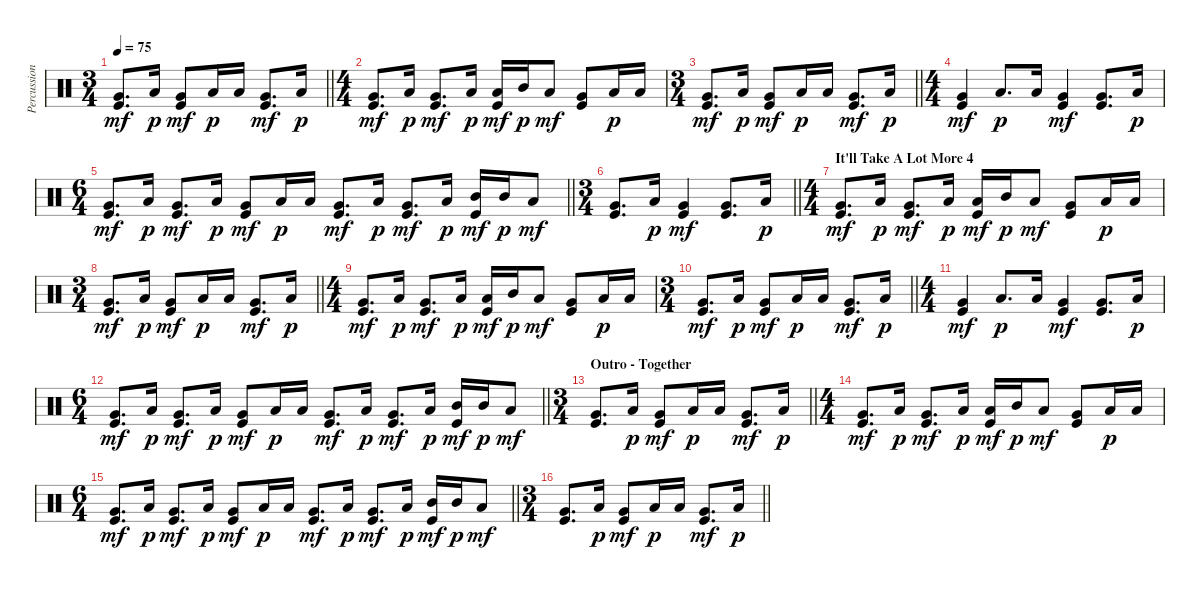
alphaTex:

\track ("Percussion" "Percussion") {instrument percussion}
\staff {score}
\articulation defaults
\ts (3 4)
\tempo 75
\clef neutral
\barLineRight lightlight
\ks c
("Very Low Tom (hit)" "Kick (hit)").8{d dy mf} "Low Tom (hit)".16{dy p} ("Very Low Tom (hit)" "Kick (hit)").8{dy mf} "Low Tom (hit)".16{dy p} "Low Tom (hit)".16 ("Very Low Tom (hit)" "Kick (hit)").8{d dy mf} "Low Tom (hit)".16{dy p} |
\ts (4 4)
("Very Low Tom (hit)" "Kick (hit)").8{d dy mf} "Low Tom (hit)".16{dy p} ("Very Low Tom (hit)" "Kick (hit)").8{d dy mf} "Low Tom (hit)".16{dy p} ("Low Tom (hit)" "Kick (hit)").16{dy mf} "Mid Tom (hit)".16{dy p} "Low Tom (hit)".8{dy mf} ("Very Low Tom (hit)" "Kick (hit)").8 "Low Tom (hit)".16{dy p} "Low Tom (hit)".16 |
\ts (3 4)
\barLineRight lightlight
("Very Low Tom (hit)" "Kick (hit)").8{d dy mf} "Low Tom (hit)".16{dy p} ("Very Low Tom (hit)" "Kick (hit)").8{dy mf} "Low Tom (hit)".16{dy p} "Low Tom (hit)".16 ("Very Low Tom (hit)" "Kick (hit)").8{d dy mf} "Low Tom (hit)".16{dy p} |
\ts (4 4)
("Very Low Tom (hit)" "Kick (hit)").4{dy mf} "Low Tom (hit)".8{d dy p} "Low Tom (hit)".16 ("Very Low Tom (hit)" "Kick (hit)").4{dy mf} ("Very Low Tom (hit)" "Kick (hit)").8{d} "Low Tom (hit)".16{dy p} |
\ts (6 4)
\barLineRight lightlight
("Very Low Tom (hit)" "Kick (hit)").8{d dy mf} "Low Tom (hit)".16{dy p} ("Very Low Tom (hit)" "Kick (hit)").8{d dy mf} "Low Tom (hit)".16{dy p} ("Very Low Tom (hit)" "Kick (hit)").8{dy mf} "Low Tom (hit)".16{dy p} "Low Tom (hit)".16 ("Very Low Tom (hit)" "Kick (hit)").8{d dy mf} "Low Tom (hit)".16{dy p} ("Very Low Tom (hit)" "Kick (hit)").8{d dy mf} "Low Tom (hit)".16{dy p} ("Mid Tom (hit)" "Kick (hit)").16{dy mf} "Mid Tom (hit)".16{dy p} "Low Tom (hit)".8{dy mf} |
\ts (3 4)
\barLineRight lightlight
("Very Low Tom (hit)" "Kick (hit)").8{d} "Low Tom (hit)".16{dy p} ("Very Low Tom (hit)" "Kick (hit)").4{dy mf} ("Very Low Tom (hit)" "Kick (hit)").8{d} "Low Tom (hit)".16{dy p} |
\ts (4 4)
\section ("" "It'll Take A Lot More 4")
("Very Low Tom (hit)" "Kick (hit)").8{d dy mf} "Low Tom (hit)".16{dy p} ("Very Low Tom (hit)" "Kick (hit)").8{d dy mf} "Low Tom (hit)".16{dy p} ("Low Tom (hit)" "Kick (hit)").16{dy mf} "Mid Tom (hit)".16{dy p} "Low Tom (hit)".8{dy mf} ("Very Low Tom (hit)" "Kick (hit)").8 "Low Tom (hit)".16{dy p} "Low Tom (hit)".16 |
\ts (3 4)
\barLineRight lightlight
("Very Low Tom (hit)" "Kick (hit)").8{d dy mf} "Low Tom (hit)".16{dy p} ("Very Low Tom (hit)" "Kick (hit)").8{dy mf} "Low Tom (hit)".16{dy p} "Low Tom (hit)".16 ("Very Low Tom (hit)" "Kick (hit)").8{d dy mf} "Low Tom (hit)".16{dy p} |
\ts (4 4)
("Very Low Tom (hit)" "Kick (hit)").8{d dy mf} "Low Tom (hit)".16{dy p} ("Very Low Tom (hit)" "Kick (hit)").8{d dy mf} "Low Tom (hit)".16{dy p} ("Low Tom (hit)" "Kick (hit)").16{dy mf} "Mid Tom (hit)".16{dy p} "Low Tom (hit)".8{dy mf} ("Very Low Tom (hit)" "Kick (hit)").8 "Low Tom (hit)".16{dy p} "Low Tom (hit)".16 |
\ts (3 4)
\barLineRight lightlight
("Very Low Tom (hit)" "Kick (hit)").8{d dy mf} "Low Tom (hit)".16{dy p} ("Very Low Tom (hit)" "Kick (hit)").8{dy mf} "Low Tom (hit)".16{dy p} "Low Tom (hit)".16 ("Very Low Tom (hit)" "Kick (hit)").8{d dy mf} "Low Tom (hit)".16{dy p} |
\ts (4 4)
("Very Low Tom (hit)" "Kick (hit)").4{dy mf} "Low Tom (hit)".8{d dy p} "Low Tom (hit)".16 ("Very Low Tom (hit)" "Kick (hit)").4{dy mf} ("Very Low Tom (hit)" "Kick (hit)").8{d} "Low Tom (hit)".16{dy p} |
\ts (6 4)
\barLineRight lightlight
("Very Low Tom (hit)" "Kick (hit)").8{d dy mf} "Low Tom (hit)".16{dy p} ("Very Low Tom (hit)" "Kick (hit)").8{d dy mf} "Low Tom (hit)".16{dy p} ("Very Low Tom (hit)" "Kick (hit)").8{dy mf} "Low Tom (hit)".16{dy p} "Low Tom (hit)".16 ("Very Low Tom (hit)" "Kick (hit)").8{d dy mf} "Low Tom (hit)".16{dy p} ("Very Low Tom (hit)" "Kick (hit)").8{d dy mf} "Low Tom (hit)".16{dy p} ("Mid Tom (hit)" "Kick (hit)").16{dy mf} "Mid Tom (hit)".16{dy p} "Low Tom (hit)".8{dy mf} |
\ts (3 4)
\section ("" "Outro - Together")
\barLineRight lightlight
("Very Low Tom (hit)" "Kick (hit)").8{d} "Low Tom (hit)".16{dy p} ("Very Low Tom (hit)" "Kick (hit)").8{dy mf} "Low Tom (hit)".16{dy p} "Low Tom (hit)".16 ("Very Low Tom (hit)" "Kick (hit)").8{d dy mf} "Low Tom (hit)".16{dy p} |
\ts (4 4)
("Very Low Tom (hit)" "Kick (hit)").8{d dy mf} "Low Tom (hit)".16{dy p} ("Very Low Tom (hit)" "Kick (hit)").8{d dy mf} "Low Tom (hit)".16{dy p} ("Low Tom (hit)" "Kick (hit)").16{dy mf} "Mid Tom (hit)".16{dy p} "Low Tom (hit)".8{dy mf} ("Very Low Tom (hit)" "Kick (hit)").8 "Low Tom (hit)".16{dy p} "Low Tom (hit)".16 |
\ts (6 4)
\barLineRight lightlight
("Very Low Tom (hit)" "Kick (hit)").8{d dy mf} "Low Tom (hit)".16{dy p} ("Very Low Tom (hit)" "Kick (hit)").8{d dy mf} "Low Tom (hit)".16{dy p} ("Very Low Tom (hit)" "Kick (hit)").8{dy mf} "Low Tom (hit)".16{dy p} "Low Tom (hit)".16 ("Very Low Tom (hit)" "Kick (hit)").8{d dy mf} "Low Tom (hit)".16{dy p} ("Very Low Tom (hit)" "Kick (hit)").8{d dy mf} "Low Tom (hit)".16{dy p} ("Mid Tom (hit)" "Kick (hit)").16{dy mf} "Mid Tom (hit)".16{dy p} "Low Tom (hit)".8{dy mf} |
\ts (3 4)
\barLineRight lightlight
("Very Low Tom (hit)" "Kick (hit)").8{d} "Low Tom (hit)".16{dy p} ("Very Low Tom (hit)" "Kick (hit)").8{dy mf} "Low Tom (hit)".16{dy p} "Low Tom (hit)".16 ("Very Low Tom (hit)" "Kick (hit)").8{d dy mf} "Low Tom (hit)".16{dy p}
